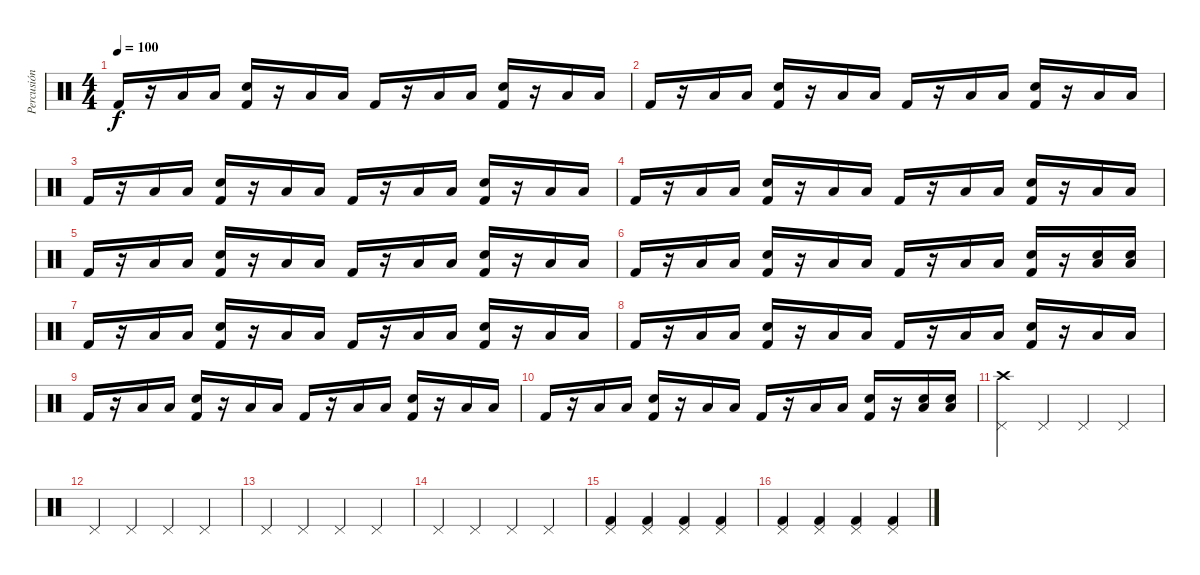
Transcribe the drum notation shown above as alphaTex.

\track ("Percusión" "Percusión") {instrument percussion}
\staff {score}
\articulation defaults
\ts (4 4)
\tempo 100
\clef neutral
\ks c "Kick (hit) 2".16{dy f}
r.16 "Low Tom (hit)".16 "Low Tom (hit)".16 ("Kick (hit) 2" "Snare (hit) 2").16 r.16 "Low Tom (hit)".16 "Low Tom (hit)".16 "Kick (hit) 2".16 r.16 "Low Tom (hit)".16 "Low Tom (hit)".16 ("Kick (hit) 2" "Snare (hit) 2").16 r.16 "Low Tom (hit)".16 "Low Tom (hit)".16 |
"Kick (hit) 2".16 r.16 "Low Tom (hit)".16 "Low Tom (hit)".16 ("Kick (hit) 2" "Snare (hit) 2").16 r.16 "Low Tom (hit)".16 "Low Tom (hit)".16 "Kick (hit) 2".16 r.16 "Low Tom (hit)".16 "Low Tom (hit)".16 ("Kick (hit) 2" "Snare (hit) 2").16 r.16 "Low Tom (hit)".16 "Low Tom (hit)".16 |
"Kick (hit) 2".16 r.16 "Low Tom (hit)".16 "Low Tom (hit)".16 ("Kick (hit) 2" "Snare (hit) 2").16 r.16 "Low Tom (hit)".16 "Low Tom (hit)".16 "Kick (hit) 2".16 r.16 "Low Tom (hit)".16 "Low Tom (hit)".16 ("Kick (hit) 2" "Snare (hit) 2").16 r.16 "Low Tom (hit)".16 "Low Tom (hit)".16 |
"Kick (hit) 2".16 r.16 "Low Tom (hit)".16 "Low Tom (hit)".16 ("Kick (hit) 2" "Snare (hit) 2").16 r.16 "Low Tom (hit)".16 "Low Tom (hit)".16 "Kick (hit) 2".16 r.16 "Low Tom (hit)".16 "Low Tom (hit)".16 ("Kick (hit) 2" "Snare (hit) 2").16 r.16 "Low Tom (hit)".16 "Low Tom (hit)".16 |
"Kick (hit) 2".16 r.16 "Low Tom (hit)".16 "Low Tom (hit)".16 ("Kick (hit) 2" "Snare (hit) 2").16 r.16 "Low Tom (hit)".16 "Low Tom (hit)".16 "Kick (hit) 2".16 r.16 "Low Tom (hit)".16 "Low Tom (hit)".16 ("Kick (hit) 2" "Snare (hit) 2").16 r.16 "Low Tom (hit)".16 "Low Tom (hit)".16 |
"Kick (hit) 2".16 r.16 "Low Tom (hit)".16 "Low Tom (hit)".16 ("Kick (hit) 2" "Snare (hit) 2").16 r.16 "Low Tom (hit)".16 "Low Tom (hit)".16 "Kick (hit) 2".16 r.16 "Low Tom (hit)".16 "Low Tom (hit)".16 ("Kick (hit) 2" "Snare (hit) 2").16 r.16 ("Low Tom (hit)" "Snare (hit) 2").16 ("Low Tom (hit)" "Snare (hit) 2").16 |
"Kick (hit) 2".16 r.16 "Low Tom (hit)".16 "Low Tom (hit)".16 ("Kick (hit) 2" "Snare (hit) 2").16 r.16 "Low Tom (hit)".16 "Low Tom (hit)".16 "Kick (hit) 2".16 r.16 "Low Tom (hit)".16 "Low Tom (hit)".16 ("Kick (hit) 2" "Snare (hit) 2").16 r.16 "Low Tom (hit)".16 "Low Tom (hit)".16 |
"Kick (hit) 2".16 r.16 "Low Tom (hit)".16 "Low Tom (hit)".16 ("Kick (hit) 2" "Snare (hit) 2").16 r.16 "Low Tom (hit)".16 "Low Tom (hit)".16 "Kick (hit) 2".16 r.16 "Low Tom (hit)".16 "Low Tom (hit)".16 ("Kick (hit) 2" "Snare (hit) 2").16 r.16 "Low Tom (hit)".16 "Low Tom (hit)".16 |
"Kick (hit) 2".16 r.16 "Low Tom (hit)".16 "Low Tom (hit)".16 ("Kick (hit) 2" "Snare (hit) 2").16 r.16 "Low Tom (hit)".16 "Low Tom (hit)".16 "Kick (hit) 2".16 r.16 "Low Tom (hit)".16 "Low Tom (hit)".16 ("Kick (hit) 2" "Snare (hit) 2").16 r.16 "Low Tom (hit)".16 "Low Tom (hit)".16 |
"Kick (hit) 2".16 r.16 "Low Tom (hit)".16 "Low Tom (hit)".16 ("Kick (hit) 2" "Snare (hit) 2").16 r.16 "Low Tom (hit)".16 "Low Tom (hit)".16 "Kick (hit) 2".16 r.16 "Low Tom (hit)".16 "Low Tom (hit)".16 ("Kick (hit) 2" "Snare (hit) 2").16 r.16 ("Low Tom (hit)" "Snare (hit) 2").16 ("Low Tom (hit)" "Snare (hit) 2").16 |
("Pedal Hi-Hat (hit)" "Crash high (hit)").4 "Pedal Hi-Hat (hit)".4 "Pedal Hi-Hat (hit)".4 "Pedal Hi-Hat (hit)".4 |
"Pedal Hi-Hat (hit)".4 "Pedal Hi-Hat (hit)".4 "Pedal Hi-Hat (hit)".4 "Pedal Hi-Hat (hit)".4 |
"Pedal Hi-Hat (hit)".4 "Pedal Hi-Hat (hit)".4 "Pedal Hi-Hat (hit)".4 "Pedal Hi-Hat (hit)".4 |
"Pedal Hi-Hat (hit)".4 "Pedal Hi-Hat (hit)".4 "Pedal Hi-Hat (hit)".4 "Pedal Hi-Hat (hit)".4 |
("Kick (hit) 2" "Pedal Hi-Hat (hit)").4 ("Kick (hit) 2" "Pedal Hi-Hat (hit)").4 ("Kick (hit) 2" "Pedal Hi-Hat (hit)").4 ("Kick (hit) 2" "Pedal Hi-Hat (hit)").4 |
("Kick (hit) 2" "Pedal Hi-Hat (hit)").4 ("Kick (hit) 2" "Pedal Hi-Hat (hit)").4 ("Kick (hit) 2" "Pedal Hi-Hat (hit)").4 ("Kick (hit) 2" "Pedal Hi-Hat (hit)").4
